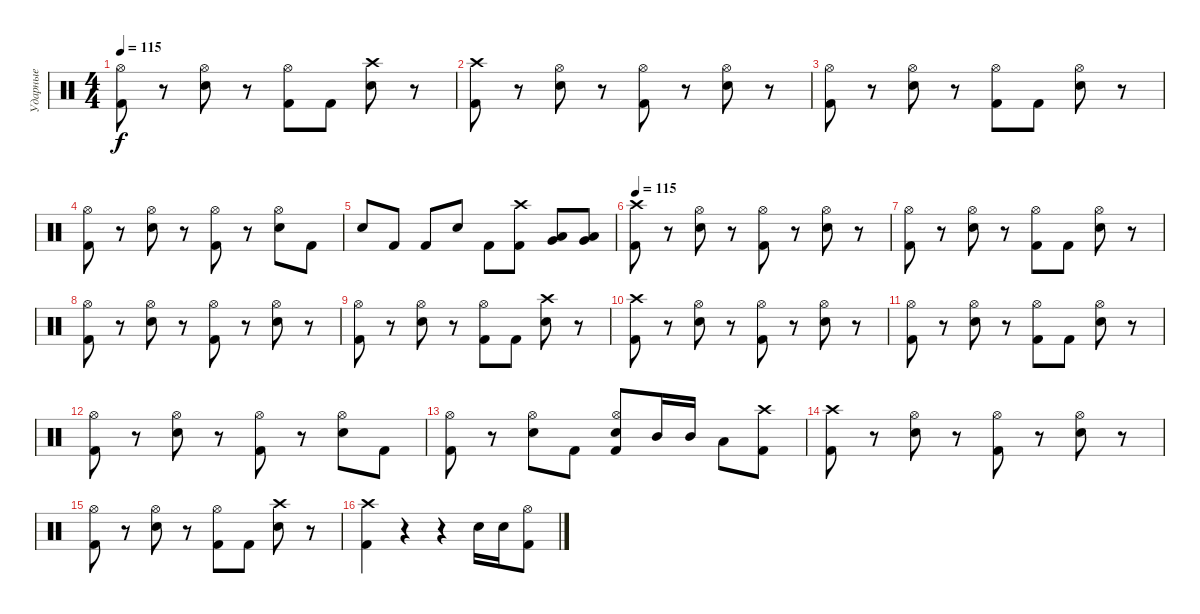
\track ("Ударные" "Ударные") {instrument percussion}
\staff {score}
\articulation defaults
\ts (4 4)
\tempo 115
\clef neutral
\ks c
("Kick (hit) 2" "Hi-Hat (open)").8{dy f} r.8 ("Hi-Hat (open)" "Electric Snare (hit)").8 r.8 ("Kick (hit) 2" "Hi-Hat (open)").8 "Kick (hit) 2".8 ("Crash high (hit)" "Electric Snare (hit)").8 r.8 |
("Kick (hit) 2" "Crash high (hit)").8 r.8 ("Hi-Hat (open)" "Electric Snare (hit)").8 r.8 ("Kick (hit) 2" "Hi-Hat (open)").8 r.8 ("Hi-Hat (open)" "Electric Snare (hit)").8 r.8 |
("Kick (hit) 2" "Hi-Hat (open)").8 r.8 ("Hi-Hat (open)" "Electric Snare (hit)").8 r.8 ("Kick (hit) 2" "Hi-Hat (open)").8 "Kick (hit) 2".8 ("Hi-Hat (open)" "Electric Snare (hit)").8 r.8 |
("Kick (hit) 2" "Hi-Hat (open)").8 r.8 ("Hi-Hat (open)" "Electric Snare (hit)").8 r.8 ("Kick (hit) 2" "Hi-Hat (open)").8 r.8 ("Hi-Hat (open)" "Electric Snare (hit)").8 "Kick (hit) 2".8 |
"Electric Snare (hit)".8 "Kick (hit) 2".8 "Kick (hit) 2".8 "Electric Snare (hit)".8 "Kick (hit) 2".8 ("Kick (hit) 2" "Crash high (hit)").8 ("Low Tom (hit)" "Very Low Tom (hit)").8 ("Low Tom (hit)" "Very Low Tom (hit)").8 |
\tempo 115
("Kick (hit) 2" "Crash high (hit)").8 r.8 ("Hi-Hat (open)" "Electric Snare (hit)").8 r.8 ("Kick (hit) 2" "Hi-Hat (open)").8 r.8 ("Hi-Hat (open)" "Electric Snare (hit)").8 r.8 |
("Kick (hit) 2" "Hi-Hat (open)").8 r.8 ("Hi-Hat (open)" "Electric Snare (hit)").8 r.8 ("Kick (hit) 2" "Hi-Hat (open)").8 "Kick (hit) 2".8 ("Hi-Hat (open)" "Electric Snare (hit)").8 r.8 |
("Kick (hit) 2" "Hi-Hat (open)").8 r.8 ("Hi-Hat (open)" "Electric Snare (hit)").8 r.8 ("Kick (hit) 2" "Hi-Hat (open)").8 r.8 ("Hi-Hat (open)" "Electric Snare (hit)").8 r.8 |
("Kick (hit) 2" "Hi-Hat (open)").8 r.8 ("Hi-Hat (open)" "Electric Snare (hit)").8 r.8 ("Kick (hit) 2" "Hi-Hat (open)").8 "Kick (hit) 2".8 ("Crash high (hit)" "Electric Snare (hit)").8 r.8 |
("Kick (hit) 2" "Crash high (hit)").8 r.8 ("Hi-Hat (open)" "Electric Snare (hit)").8 r.8 ("Kick (hit) 2" "Hi-Hat (open)").8 r.8 ("Hi-Hat (open)" "Electric Snare (hit)").8 r.8 |
("Kick (hit) 2" "Hi-Hat (open)").8 r.8 ("Hi-Hat (open)" "Electric Snare (hit)").8 r.8 ("Kick (hit) 2" "Hi-Hat (open)").8 "Kick (hit) 2".8 ("Hi-Hat (open)" "Electric Snare (hit)").8 r.8 |
("Kick (hit) 2" "Hi-Hat (open)").8 r.8 ("Hi-Hat (open)" "Electric Snare (hit)").8 r.8 ("Kick (hit) 2" "Hi-Hat (open)").8 r.8 ("Hi-Hat (open)" "Electric Snare (hit)").8 "Kick (hit) 2".8 |
("Kick (hit) 2" "Hi-Hat (open)").8 r.8 ("Hi-Hat (open)" "Electric Snare (hit)").8 "Kick (hit) 2".8 ("Kick (hit) 2" "Hi-Hat (open)" "Electric Snare (hit)").8 "Mid Tom (hit)".16 "Mid Tom (hit)".16 "Low Tom (hit)".8 ("Kick (hit) 2" "Crash high (hit)").8 |
("Kick (hit) 2" "Crash high (hit)").8 r.8 ("Hi-Hat (open)" "Electric Snare (hit)").8 r.8 ("Kick (hit) 2" "Hi-Hat (open)").8 r.8 ("Hi-Hat (open)" "Electric Snare (hit)").8 r.8 |
("Kick (hit) 2" "Hi-Hat (open)").8 r.8 ("Hi-Hat (open)" "Electric Snare (hit)").8 r.8 ("Kick (hit) 2" "Hi-Hat (open)").8 "Kick (hit) 2".8 ("Crash high (hit)" "Electric Snare (hit)").8 r.8 |
("Kick (hit) 2" "Crash high (hit)").4 r.4 r.4 "Electric Snare (hit)".16 "Electric Snare (hit)".16 ("Kick (hit) 2" "Hi-Hat (open)").8
